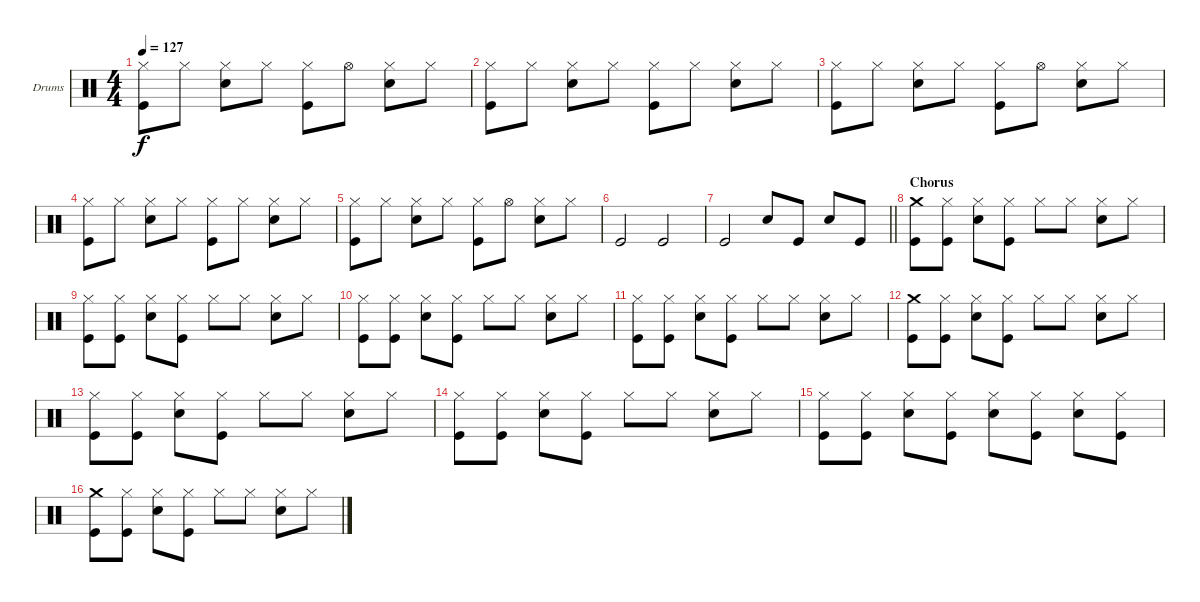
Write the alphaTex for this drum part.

\bracketExtendMode groupsimilarinstruments
\firstSystemTrackNameOrientation horizontal
\otherSystemsTrackNameOrientation horizontal
\track ("Drumkit" "Drums") {instrument percussion}
\staff {score}
\articulation defaults
\ts (4 4)
\tempo 127
\clef neutral
\ks c
("Hi-Hat (closed)" "Kick (hit)").8{dy f} "Hi-Hat (closed)".8 ("Hi-Hat (closed)" "Snare (hit) 2").8 "Hi-Hat (closed)".8 ("Hi-Hat (closed)" "Kick (hit)").8 "Hi-Hat (open)".8 ("Hi-Hat (closed)" "Snare (hit) 2").8 "Hi-Hat (closed)".8 |
("Hi-Hat (closed)" "Kick (hit)").8 "Hi-Hat (closed)".8 ("Hi-Hat (closed)" "Snare (hit) 2").8 "Hi-Hat (closed)".8 ("Hi-Hat (closed)" "Kick (hit)").8 "Hi-Hat (closed)".8 ("Hi-Hat (closed)" "Snare (hit) 2").8 "Hi-Hat (closed)".8 |
("Hi-Hat (closed)" "Kick (hit)").8 "Hi-Hat (closed)".8 ("Hi-Hat (closed)" "Snare (hit) 2").8 "Hi-Hat (closed)".8 ("Hi-Hat (closed)" "Kick (hit)").8 "Hi-Hat (open)".8 ("Hi-Hat (closed)" "Snare (hit) 2").8 "Hi-Hat (closed)".8 |
("Hi-Hat (closed)" "Kick (hit)").8 "Hi-Hat (closed)".8 ("Hi-Hat (closed)" "Snare (hit) 2").8 "Hi-Hat (closed)".8 ("Hi-Hat (closed)" "Kick (hit)").8 "Hi-Hat (closed)".8 ("Hi-Hat (closed)" "Snare (hit) 2").8 "Hi-Hat (closed)".8 |
("Hi-Hat (closed)" "Kick (hit)").8 "Hi-Hat (closed)".8 ("Hi-Hat (closed)" "Snare (hit) 2").8 "Hi-Hat (closed)".8 ("Hi-Hat (closed)" "Kick (hit)").8 "Hi-Hat (open)".8 ("Hi-Hat (closed)" "Snare (hit) 2").8 "Hi-Hat (closed)".8 |
"Kick (hit)".2 "Kick (hit)".2 |
\barLineRight lightlight "Kick (hit)".2 "Snare (hit) 2".8 "Kick (hit)".8 "Snare (hit) 2".8 "Kick (hit)".8
|
\section ("" "Chorus")
("Crash medium (hit)" "Kick (hit)").8 ("Hi-Hat (closed)" "Kick (hit)").8 ("Hi-Hat (closed)" "Snare (hit) 2").8 ("Hi-Hat (closed)" "Kick (hit)").8 "Hi-Hat (closed)".8 "Hi-Hat (closed)".8 ("Hi-Hat (closed)" "Snare (hit) 2").8 "Hi-Hat (closed)".8 |
("Hi-Hat (closed)" "Kick (hit)").8 ("Hi-Hat (closed)" "Kick (hit)").8 ("Hi-Hat (closed)" "Snare (hit) 2").8 ("Hi-Hat (closed)" "Kick (hit)").8 "Hi-Hat (closed)".8 "Hi-Hat (closed)".8 ("Hi-Hat (closed)" "Snare (hit) 2").8 "Hi-Hat (closed)".8 |
("Hi-Hat (closed)" "Kick (hit)").8 ("Hi-Hat (closed)" "Kick (hit)").8 ("Hi-Hat (closed)" "Snare (hit) 2").8 ("Hi-Hat (closed)" "Kick (hit)").8 "Hi-Hat (closed)".8 "Hi-Hat (closed)".8 ("Hi-Hat (closed)" "Snare (hit) 2").8 "Hi-Hat (closed)".8 |
("Hi-Hat (closed)" "Kick (hit)").8 ("Hi-Hat (closed)" "Kick (hit)").8 ("Hi-Hat (closed)" "Snare (hit) 2").8 ("Hi-Hat (closed)" "Kick (hit)").8 "Hi-Hat (closed)".8 "Hi-Hat (closed)".8 ("Hi-Hat (closed)" "Snare (hit) 2").8 "Hi-Hat (closed)".8 |
("Crash medium (hit)" "Kick (hit)").8 ("Hi-Hat (closed)" "Kick (hit)").8 ("Hi-Hat (closed)" "Snare (hit) 2").8 ("Hi-Hat (closed)" "Kick (hit)").8 "Hi-Hat (closed)".8 "Hi-Hat (closed)".8 ("Hi-Hat (closed)" "Snare (hit) 2").8 "Hi-Hat (closed)".8 |
("Hi-Hat (closed)" "Kick (hit)").8 ("Hi-Hat (closed)" "Kick (hit)").8 ("Hi-Hat (closed)" "Snare (hit) 2").8 ("Hi-Hat (closed)" "Kick (hit)").8 "Hi-Hat (closed)".8 "Hi-Hat (closed)".8 ("Hi-Hat (closed)" "Snare (hit) 2").8 "Hi-Hat (closed)".8 |
("Hi-Hat (closed)" "Kick (hit)").8 ("Hi-Hat (closed)" "Kick (hit)").8 ("Hi-Hat (closed)" "Snare (hit) 2").8 ("Hi-Hat (closed)" "Kick (hit)").8 "Hi-Hat (closed)".8 "Hi-Hat (closed)".8 ("Hi-Hat (closed)" "Snare (hit) 2").8 "Hi-Hat (closed)".8 |
("Hi-Hat (closed)" "Kick (hit)").8 ("Hi-Hat (closed)" "Kick (hit)").8 ("Hi-Hat (closed)" "Snare (hit) 2").8 ("Hi-Hat (closed)" "Kick (hit)").8 ("Hi-Hat (closed)" "Snare (hit) 2").8 ("Hi-Hat (closed)" "Kick (hit)").8 ("Hi-Hat (closed)" "Snare (hit) 2").8 ("Hi-Hat (closed)" "Kick (hit)").8 |
("Crash medium (hit)" "Kick (hit)").8 ("Hi-Hat (closed)" "Kick (hit)").8 ("Hi-Hat (closed)" "Snare (hit) 2").8 ("Hi-Hat (closed)" "Kick (hit)").8 "Hi-Hat (closed)".8 "Hi-Hat (closed)".8 ("Hi-Hat (closed)" "Snare (hit) 2").8 "Hi-Hat (closed)".8
